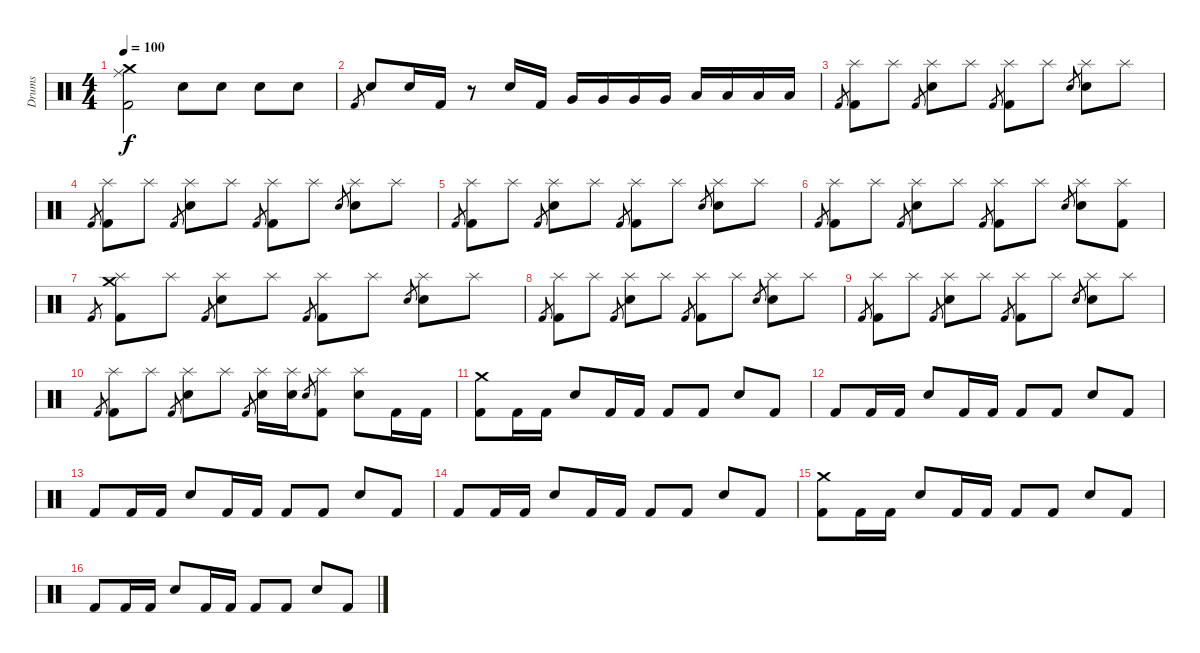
\track ("Drums" "Drums") {instrument percussion}
\staff {score}
\articulation defaults
\ts (4 4)
\tempo 100
\clef neutral
\ks c
("Crash medium (hit)" "Ride (middle)" "Kick (hit) 2").2{dy f} "Snare (hit) 2".8 "Snare (hit) 2".8 "Snare (hit) 2".8 "Snare (hit) 2".8 |
"Kick (hit) 2".8{gr} "Snare (hit) 2".8 "Snare (hit) 2".16 "Kick (hit) 2".16 r.8 "Snare (hit) 2".16 "Kick (hit) 2".16 "Very Low Tom (hit)".16 "Very Low Tom (hit)".16 "Very Low Tom (hit)".16 "Very Low Tom (hit)".16 "Low Tom (hit)".16 "Low Tom (hit)".16 "Low Tom (hit)".16 "Low Tom (hit)".16 |
"Kick (hit) 2".8{gr} ("Splash (hit)" "Kick (hit) 2").8 "Splash (hit)".8 "Kick (hit) 2".8{gr} ("Splash (hit)" "Snare (hit) 2").8 "Splash (hit)".8 "Kick (hit) 2".8{gr} ("Splash (hit)" "Kick (hit) 2").8 "Splash (hit)".8 "Snare (hit) 2".8{gr} ("Splash (hit)" "Snare (hit) 2").8 "Splash (hit)".8 |
"Kick (hit) 2".8{gr} ("Splash (hit)" "Kick (hit) 2").8 "Splash (hit)".8 "Kick (hit) 2".8{gr} ("Splash (hit)" "Snare (hit) 2").8 "Splash (hit)".8 "Kick (hit) 2".8{gr} ("Splash (hit)" "Kick (hit) 2").8 "Splash (hit)".8 "Snare (hit) 2".8{gr} ("Splash (hit)" "Snare (hit) 2").8 "Splash (hit)".8 |
"Kick (hit) 2".8{gr} ("Splash (hit)" "Kick (hit) 2").8 "Splash (hit)".8 "Kick (hit) 2".8{gr} ("Splash (hit)" "Snare (hit) 2").8 "Splash (hit)".8 "Kick (hit) 2".8{gr} ("Splash (hit)" "Kick (hit) 2").8 "Splash (hit)".8 "Snare (hit) 2".8{gr} ("Splash (hit)" "Snare (hit) 2").8 "Splash (hit)".8 |
"Kick (hit) 2".8{gr} ("Splash (hit)" "Kick (hit) 2").8 "Splash (hit)".8 "Kick (hit) 2".8{gr} ("Splash (hit)" "Snare (hit) 2").8 "Splash (hit)".8 "Kick (hit) 2".8{gr} ("Splash (hit)" "Kick (hit) 2").8 "Splash (hit)".8 "Snare (hit) 2".8{gr} ("Splash (hit)" "Snare (hit) 2").8 ("Splash (hit)" "Kick (hit) 2").8 |
"Kick (hit) 2".8{gr} ("Splash (hit)" "Crash medium (hit)" "Kick (hit) 2").8 "Splash (hit)".8 "Kick (hit) 2".8{gr} ("Splash (hit)" "Snare (hit) 2").8 "Splash (hit)".8 "Kick (hit) 2".8{gr} ("Splash (hit)" "Kick (hit) 2").8 "Splash (hit)".8 "Snare (hit) 2".8{gr} ("Splash (hit)" "Snare (hit) 2").8 "Splash (hit)".8 |
"Kick (hit) 2".8{gr} ("Splash (hit)" "Kick (hit) 2").8 "Splash (hit)".8 "Kick (hit) 2".8{gr} ("Splash (hit)" "Snare (hit) 2").8 "Splash (hit)".8 "Kick (hit) 2".8{gr} ("Splash (hit)" "Kick (hit) 2").8 "Splash (hit)".8 "Snare (hit) 2".8{gr} ("Splash (hit)" "Snare (hit) 2").8 "Splash (hit)".8 |
"Kick (hit) 2".8{gr} ("Splash (hit)" "Kick (hit) 2").8 "Splash (hit)".8 "Kick (hit) 2".8{gr} ("Splash (hit)" "Snare (hit) 2").8 "Splash (hit)".8 "Kick (hit) 2".8{gr} ("Splash (hit)" "Kick (hit) 2").8 "Splash (hit)".8 "Snare (hit) 2".8{gr} ("Splash (hit)" "Snare (hit) 2").8 "Splash (hit)".8 |
"Kick (hit) 2".8{gr} ("Splash (hit)" "Kick (hit) 2").8 "Splash (hit)".8 "Kick (hit) 2".8{gr} ("Splash (hit)" "Snare (hit) 2").8 "Splash (hit)".8 "Kick (hit) 2".8{gr} ("Splash (hit)" "Snare (hit) 2").16 ("Splash (hit)" "Snare (hit) 2").16 "Snare (hit) 2".8{gr} ("Splash (hit)" "Kick (hit) 2").8 ("Splash (hit)" "Snare (hit) 2").8 "Kick (hit) 2".16 "Kick (hit) 2".16 |
("Crash medium (hit)" "Kick (hit) 2").8 "Kick (hit) 2".16 "Kick (hit) 2".16 "Snare (hit) 2".8 "Kick (hit) 2".16 "Kick (hit) 2".16 "Kick (hit) 2".8 "Kick (hit) 2".8 "Snare (hit) 2".8 "Kick (hit) 2".8 |
"Kick (hit) 2".8 "Kick (hit) 2".16 "Kick (hit) 2".16 "Snare (hit) 2".8 "Kick (hit) 2".16 "Kick (hit) 2".16 "Kick (hit) 2".8 "Kick (hit) 2".8 "Snare (hit) 2".8 "Kick (hit) 2".8 |
"Kick (hit) 2".8 "Kick (hit) 2".16 "Kick (hit) 2".16 "Snare (hit) 2".8 "Kick (hit) 2".16 "Kick (hit) 2".16 "Kick (hit) 2".8 "Kick (hit) 2".8 "Snare (hit) 2".8 "Kick (hit) 2".8 |
"Kick (hit) 2".8 "Kick (hit) 2".16 "Kick (hit) 2".16 "Snare (hit) 2".8 "Kick (hit) 2".16 "Kick (hit) 2".16 "Kick (hit) 2".8 "Kick (hit) 2".8 "Snare (hit) 2".8 "Kick (hit) 2".8 |
("Crash medium (hit)" "Kick (hit) 2").8 "Kick (hit) 2".16 "Kick (hit) 2".16 "Snare (hit) 2".8 "Kick (hit) 2".16 "Kick (hit) 2".16 "Kick (hit) 2".8 "Kick (hit) 2".8 "Snare (hit) 2".8 "Kick (hit) 2".8 |
"Kick (hit) 2".8 "Kick (hit) 2".16 "Kick (hit) 2".16 "Snare (hit) 2".8 "Kick (hit) 2".16 "Kick (hit) 2".16 "Kick (hit) 2".8 "Kick (hit) 2".8 "Snare (hit) 2".8 "Kick (hit) 2".8
